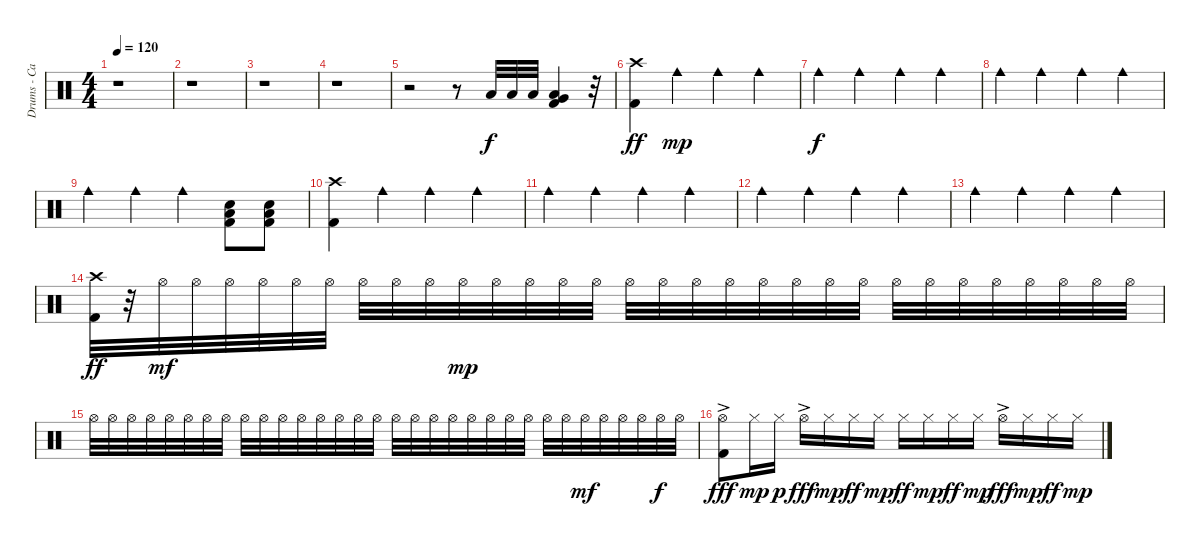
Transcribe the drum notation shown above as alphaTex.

\track ("Drums - Carl Palmer" "Drums - Ca") {instrument percussion}
\staff {score}
\articulation defaults
\ts (4 4)
\tempo 120
\clef neutral
\ks c
r.1{dy f} |
r.1 |
r.1 |
r.1 |
r.2 r.8 "Low Floor Tom (hit)".32 "Low Floor Tom (hit)".32 "Low Floor Tom (hit)".32 ("Very Low Tom (hit)" "Low Floor Tom (hit)" "Kick (hit) 2").4 r.32 |
("Crash high (hit)" "Kick (hit) 2").4{dy ff} "Cowbell medium (hit)".4{dy mp} "Cowbell medium (hit)".4 "Cowbell medium (hit)".4 |
"Cowbell medium (hit)".4{dy f} "Cowbell medium (hit)".4 "Cowbell medium (hit)".4 "Cowbell medium (hit)".4 |
"Cowbell medium (hit)".4 "Cowbell medium (hit)".4 "Cowbell medium (hit)".4 "Cowbell medium (hit)".4 |
"Cowbell medium (hit)".4 "Cowbell medium (hit)".4 "Cowbell medium (hit)".4 ("Snare (hit) 2" "Low Floor Tom (hit)" "Kick (hit) 2").8 ("Snare (hit) 2" "Low Floor Tom (hit)" "Kick (hit) 2").8 |
("Crash high (hit)" "Kick (hit) 2").4 "Cowbell medium (hit)".4 "Cowbell medium (hit)".4 "Cowbell medium (hit)".4 |
"Cowbell medium (hit)".4 "Cowbell medium (hit)".4 "Cowbell medium (hit)".4 "Cowbell medium (hit)".4 |
"Cowbell medium (hit)".4 "Cowbell medium (hit)".4 "Cowbell medium (hit)".4 "Cowbell medium (hit)".4 |
"Cowbell medium (hit)".4 "Cowbell medium (hit)".4 "Cowbell medium (hit)".4 "Cowbell medium (hit)".4 |
("Crash high (hit)" "Kick (hit) 2").32{dy ff} r.32 "Hi-Hat (open)".32{dy mf} "Hi-Hat (open)".32 "Hi-Hat (open)".32 "Hi-Hat (open)".32 "Hi-Hat (open)".32 "Hi-Hat (open)".32 "Hi-Hat (open)".32 "Hi-Hat (open)".32 "Hi-Hat (open)".32 "Hi-Hat (open)".32{dy mp} "Hi-Hat (open)".32 "Hi-Hat (open)".32 "Hi-Hat (open)".32 "Hi-Hat (open)".32 "Hi-Hat (open)".32 "Hi-Hat (open)".32 "Hi-Hat (open)".32 "Hi-Hat (open)".32 "Hi-Hat (open)".32 "Hi-Hat (open)".32 "Hi-Hat (open)".32 "Hi-Hat (open)".32 "Hi-Hat (open)".32 "Hi-Hat (open)".32 "Hi-Hat (open)".32 "Hi-Hat (open)".32 "Hi-Hat (open)".32 "Hi-Hat (open)".32 "Hi-Hat (open)".32 "Hi-Hat (open)".32 |
"Hi-Hat (open)".32 "Hi-Hat (open)".32 "Hi-Hat (open)".32 "Hi-Hat (open)".32 "Hi-Hat (open)".32 "Hi-Hat (open)".32 "Hi-Hat (open)".32 "Hi-Hat (open)".32 "Hi-Hat (open)".32 "Hi-Hat (open)".32 "Hi-Hat (open)".32 "Hi-Hat (open)".32 "Hi-Hat (open)".32 "Hi-Hat (open)".32 "Hi-Hat (open)".32 "Hi-Hat (open)".32 "Hi-Hat (open)".32 "Hi-Hat (open)".32 "Hi-Hat (open)".32 "Hi-Hat (open)".32 "Hi-Hat (open)".32 "Hi-Hat (open)".32 "Hi-Hat (open)".32 "Hi-Hat (open)".32 "Hi-Hat (open)".32 "Hi-Hat (open)".32 "Hi-Hat (open)".32{dy mf} "Hi-Hat (open)".32 "Hi-Hat (open)".32 "Hi-Hat (open)".32 "Hi-Hat (open)".32{dy f} "Hi-Hat (open)".32 |
("Hi-Hat (open)"{ac} "Kick (hit) 2").8{dy fff} "Hi-Hat (closed)".16{dy mp} "Hi-Hat (closed)".16{dy p} "Hi-Hat (open)"{ac}.16{dy fff} "Hi-Hat (closed)".16{dy mp} "Hi-Hat (closed)".16{dy ff} "Hi-Hat (closed)".16{dy mp} "Hi-Hat (closed)".16{dy ff} "Hi-Hat (closed)".16{dy mp} "Hi-Hat (closed)".16{dy ff} "Hi-Hat (closed)".16{dy mp} "Hi-Hat (open)"{ac}.16{dy fff} "Hi-Hat (closed)".16{dy mp} "Hi-Hat (closed)".16{dy ff} "Hi-Hat (closed)".16{dy mp}
